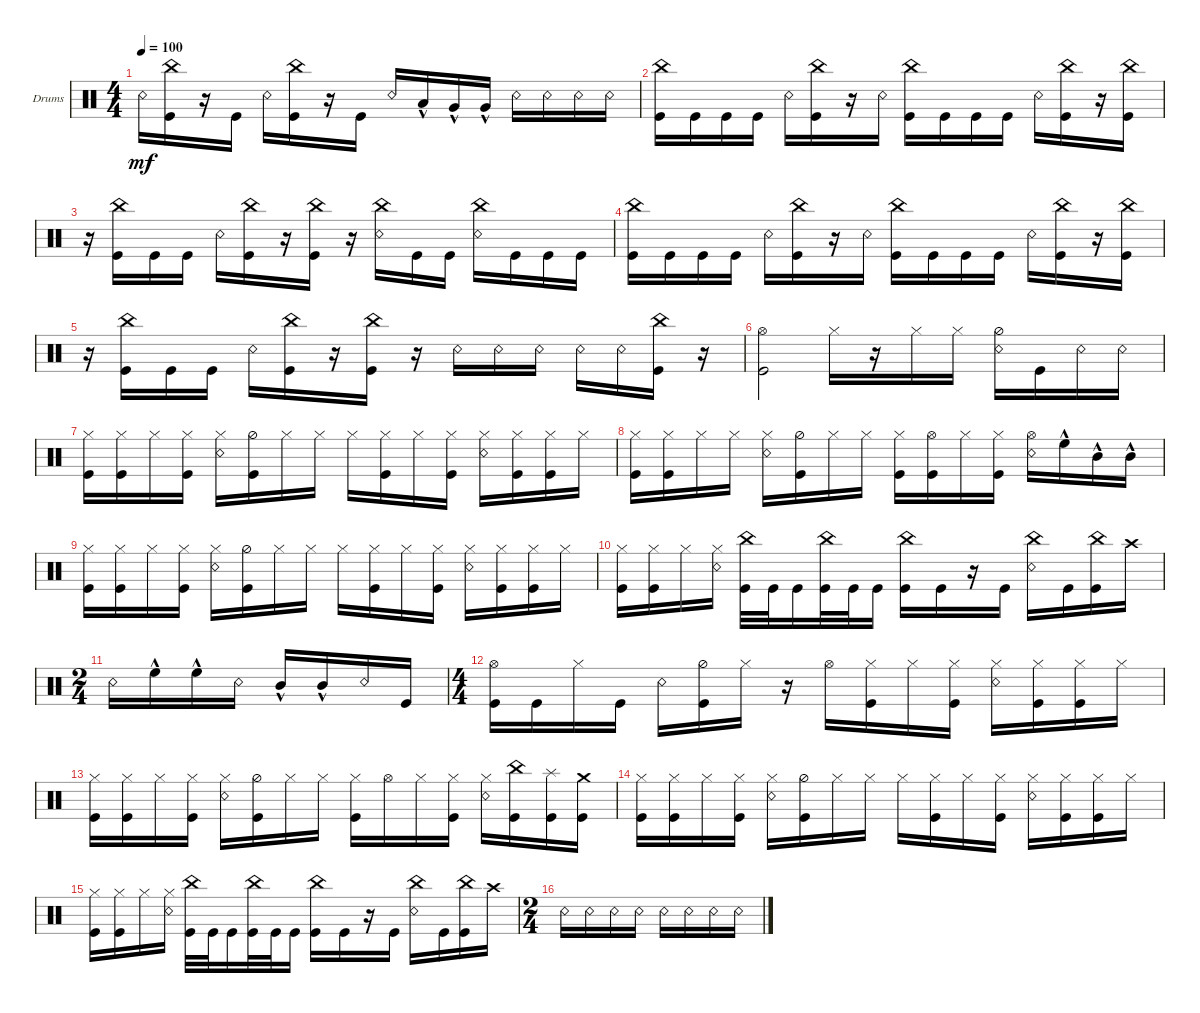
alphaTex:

\defaultSystemsLayout 4
\bracketExtendMode groupsimilarinstruments
\firstSystemTrackNameOrientation horizontal
\otherSystemsTrackNameOrientation horizontal
\track ("Drumkit" "Drums") {instrument percussion}
\staff {score}
\articulation defaults
\ts (4 4)
\tempo 100
\clef neutral
\ks c "Snare (rim shot)".16{dy mf}
("China (hit)" "Kick (hit)").16 r.16 "Kick (hit)".16 "Snare (rim shot)".16 ("China (hit)" "Kick (hit)").16 r.16 "Kick (hit)".16 "Snare (rim shot)".16 "Low Tom (hit)"{hac}.16 "Very Low Tom (hit)"{hac}.16 "Very Low Tom (hit)"{hac}.16 "Snare (rim shot)".16 "Snare (rim shot)".16 "Snare (rim shot)".16 "Snare (rim shot)".16 |
("Kick (hit)" "China (hit)").16 "Kick (hit)".16 "Kick (hit)".16 "Kick (hit)".16 "Snare (rim shot)".16 ("China (hit)" "Kick (hit)").16 r.16 "Snare (rim shot)".16 ("Kick (hit)" "China (hit)").16 "Kick (hit)".16 "Kick (hit)".16 "Kick (hit)".16 "Snare (rim shot)".16 ("Kick (hit)" "China (hit)").16 r.16 ("Kick (hit)" "China (hit)").16 |
r.16 ("China (hit)" "Kick (hit)").16 "Kick (hit)".16 "Kick (hit)".16 "Snare (rim shot)".16 ("Kick (hit)" "China (hit)").16 r.16 ("China (hit)" "Kick (hit)").16 r.16 ("Snare (rim shot)" "China (hit)").16 "Kick (hit)".16 "Kick (hit)".16 ("Snare (rim shot)" "China (hit)").16 "Kick (hit)".16 "Kick (hit)".16 "Kick (hit)".16 |
("Kick (hit)" "China (hit)").16 "Kick (hit)".16 "Kick (hit)".16 "Kick (hit)".16 "Snare (rim shot)".16 ("China (hit)" "Kick (hit)").16 r.16 "Snare (rim shot)".16 ("Kick (hit)" "China (hit)").16 "Kick (hit)".16 "Kick (hit)".16 "Kick (hit)".16 "Snare (rim shot)".16 ("Kick (hit)" "China (hit)").16 r.16 ("Kick (hit)" "China (hit)").16 |
r.16 ("China (hit)" "Kick (hit)").16 "Kick (hit)".16 "Kick (hit)".16 "Snare (rim shot)".16 ("Kick (hit)" "China (hit)").16 r.16 ("China (hit)" "Kick (hit)").16 r.16 "Snare (rim shot)".16 "Snare (rim shot)".16 "Snare (rim shot)".16 "Snare (rim shot)".16 "Snare (rim shot)".16 ("China (hit)" "Kick (hit)").16 r.16 |
("Kick (hit)" "Hi-Hat (open)").2 "Hi-Hat (closed)".16 r.16 "Hi-Hat (closed)".16 "Hi-Hat (closed)".16 ("Hi-Hat (half)" "Snare (rim shot)").16 "Kick (hit)".16 "Snare (rim shot)".16 "Snare (rim shot)".16 |
("Kick (hit)" "Hi-Hat (closed)").16 ("Kick (hit)" "Hi-Hat (closed)").16 "Hi-Hat (closed)".16 ("Hi-Hat (closed)" "Kick (hit)").16 ("Hi-Hat (closed)" "Snare (rim shot)").16 ("Hi-Hat (half)" "Kick (hit)").16 "Hi-Hat (closed)".16 "Hi-Hat (closed)".16 "Hi-Hat (closed)".16 ("Hi-Hat (closed)" "Kick (hit)").16 "Hi-Hat (closed)".16 ("Hi-Hat (closed)" "Kick (hit)").16 ("Hi-Hat (closed)" "Snare (rim shot)").16 ("Hi-Hat (closed)" "Kick (hit)").16 ("Hi-Hat (closed)" "Kick (hit)").16 "Hi-Hat (closed)".16 |
("Kick (hit)" "Hi-Hat (closed)").16 ("Kick (hit)" "Hi-Hat (closed)").16 "Hi-Hat (closed)".16 "Hi-Hat (closed)".16 ("Hi-Hat (closed)" "Snare (rim shot)").16 ("Hi-Hat (half)" "Kick (hit)").16 "Hi-Hat (closed)".16 "Hi-Hat (closed)".16 ("Hi-Hat (closed)" "Kick (hit)").16 ("Hi-Hat (open)" "Kick (hit)").16 "Hi-Hat (closed)".16 ("Hi-Hat (closed)" "Kick (hit)").16 ("Hi-Hat (open)" "Snare (rim shot)").16 "High Floor Tom (hit)"{hac}.16 "Mid Tom (hit)"{hac}.16 "Mid Tom (hit)"{hac}.16 |
("Kick (hit)" "Hi-Hat (closed)").16 ("Kick (hit)" "Hi-Hat (closed)").16 "Hi-Hat (closed)".16 ("Hi-Hat (closed)" "Kick (hit)").16 ("Hi-Hat (closed)" "Snare (rim shot)").16 ("Hi-Hat (half)" "Kick (hit)").16 "Hi-Hat (closed)".16 "Hi-Hat (closed)".16 "Hi-Hat (closed)".16 ("Hi-Hat (closed)" "Kick (hit)").16 "Hi-Hat (closed)".16 ("Hi-Hat (closed)" "Kick (hit)").16 ("Hi-Hat (closed)" "Snare (rim shot)").16 ("Hi-Hat (closed)" "Kick (hit)").16 ("Hi-Hat (closed)" "Kick (hit)").16 "Hi-Hat (closed)".16 |
("Kick (hit)" "Hi-Hat (closed)").16 ("Kick (hit)" "Hi-Hat (closed)").16 "Hi-Hat (closed)".16 ("Hi-Hat (closed)" "Snare (rim shot)").16 ("Kick (hit)" "China (hit)").32 "Kick (hit)".32 "Kick (hit)".16 ("Kick (hit)" "China (hit)").32 "Kick (hit)".32 "Kick (hit)".16 ("China (hit)" "Kick (hit)").16 "Kick (hit)".16 r.16 "Kick (hit)".16 ("Snare (rim shot)" "China (hit)").16 "Kick (hit)".16 ("China (hit)" "Kick (hit)").16 "Crash high (hit)".16 |
\ts (2 4)
"Snare (rim shot)".16 "High Floor Tom (hit)"{hac}.16 "High Floor Tom (hit)"{hac}.16 "Snare (rim shot)".16 "Mid Tom (hit)"{hac}.16 "Mid Tom (hit)"{hac}.16 "Snare (rim shot)".16 "Kick (hit)".16 |
\ts (4 4)
("Kick (hit)" "Hi-Hat (open)").16 "Kick (hit)".16 "Hi-Hat (closed)".16 "Kick (hit)".16 "Snare (rim shot)".16 ("Hi-Hat (half)" "Kick (hit)").16 "Hi-Hat (closed)".16 r.16 "Hi-Hat (open)".16 ("Hi-Hat (closed)" "Kick (hit)").16 "Hi-Hat (closed)".16 ("Hi-Hat (closed)" "Kick (hit)").16 ("Hi-Hat (closed)" "Snare (rim shot)").16 ("Hi-Hat (closed)" "Kick (hit)").16 ("Hi-Hat (closed)" "Kick (hit)").16 "Hi-Hat (closed)".16 |
("Kick (hit)" "Hi-Hat (closed)").16 ("Kick (hit)" "Hi-Hat (closed)").16 "Hi-Hat (closed)".16 ("Hi-Hat (closed)" "Kick (hit)").16 ("Hi-Hat (closed)" "Snare (rim shot)").16 ("Hi-Hat (half)" "Kick (hit)").16 "Hi-Hat (closed)".16 "Hi-Hat (closed)".16 ("Hi-Hat (closed)" "Kick (hit)").16 "Hi-Hat (open)".16 "Hi-Hat (closed)".16 ("Hi-Hat (closed)" "Kick (hit)").16 ("Hi-Hat (closed)" "Snare (rim shot)").16 ("Kick (hit)" "China (hit)").16 ("Kick (hit)" "Splash (hit)").16 ("Crash medium (hit)" "Kick (hit)").16 |
("Kick (hit)" "Hi-Hat (closed)").16 ("Kick (hit)" "Hi-Hat (closed)").16 "Hi-Hat (closed)".16 ("Hi-Hat (closed)" "Kick (hit)").16 ("Hi-Hat (closed)" "Snare (rim shot)").16 ("Hi-Hat (half)" "Kick (hit)").16 "Hi-Hat (closed)".16 "Hi-Hat (closed)".16 "Hi-Hat (closed)".16 ("Hi-Hat (closed)" "Kick (hit)").16 "Hi-Hat (closed)".16 ("Hi-Hat (closed)" "Kick (hit)").16 ("Hi-Hat (closed)" "Snare (rim shot)").16 ("Hi-Hat (closed)" "Kick (hit)").16 ("Hi-Hat (closed)" "Kick (hit)").16 "Hi-Hat (closed)".16 |
("Kick (hit)" "Hi-Hat (closed)").16 ("Kick (hit)" "Hi-Hat (closed)").16 "Hi-Hat (closed)".16 ("Hi-Hat (closed)" "Snare (rim shot)").16 ("Kick (hit)" "China (hit)").32 "Kick (hit)".32 "Kick (hit)".16 ("Kick (hit)" "China (hit)").32 "Kick (hit)".32 "Kick (hit)".16 ("China (hit)" "Kick (hit)").16 "Kick (hit)".16 r.16 "Kick (hit)".16 ("Snare (rim shot)" "China (hit)").16 "Kick (hit)".16 ("China (hit)" "Kick (hit)").16 "Crash high (hit)".16 |
\ts (2 4)
"Snare (rim shot)".16 "Snare (rim shot)".16 "Snare (rim shot)".16 "Snare (rim shot)".16 "Snare (rim shot)".16 "Snare (rim shot)".16 "Snare (rim shot)".16 "Snare (rim shot)".16
